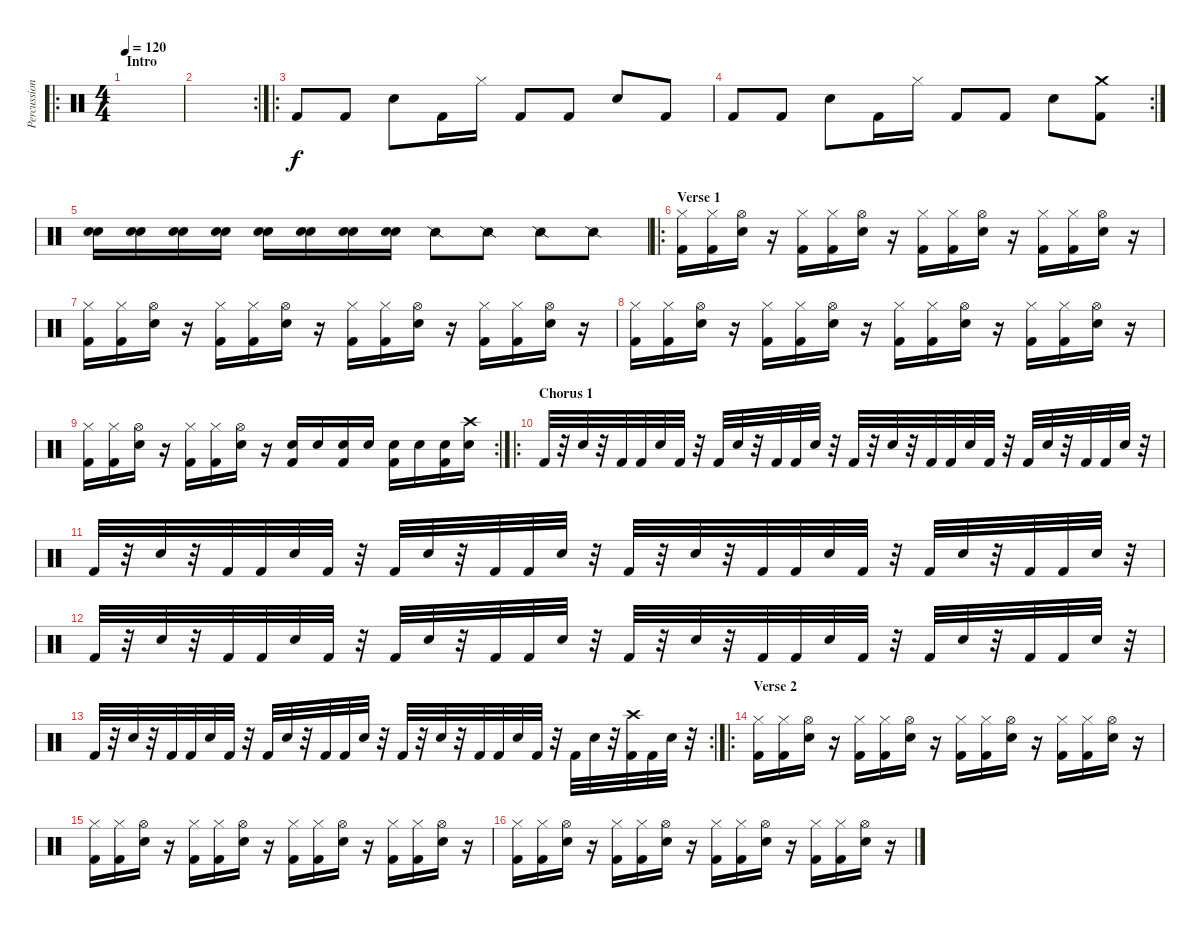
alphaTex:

\track ("Percussion" "Percussion") {instrument percussion}
\staff {score}
\articulation defaults
\ro
\ts (4 4)
\section ("" "Intro")
\tempo 120
\clef neutral
\ks c
|
\rc 2
|
\ro "Kick (hit) 2".8 "Kick (hit) 2".8 "Electric Snare (hit)".8 "Kick (hit) 2".16 "Hi-Hat (closed)".16 "Kick (hit) 2".8 "Kick (hit) 2".8 "Electric Snare (hit)".8 "Kick (hit) 2".8
|
\rc 2 "Kick (hit) 2".8 "Kick (hit) 2".8 "Electric Snare (hit)".8 "Kick (hit) 2".16 "Hi-Hat (closed)".16 "Kick (hit) 2".8 "Kick (hit) 2".8 "Electric Snare (hit)".8
("Crash medium (hit)" "Kick (hit) 2").8 |
("Electric Snare (hit)" "Snare (hit) 2").16 ("Electric Snare (hit)" "Snare (hit) 2").16 ("Electric Snare (hit)" "Snare (hit) 2").16 ("Electric Snare (hit)" "Snare (hit) 2").16 ("Electric Snare (hit)" "Snare (hit) 2").16 ("Electric Snare (hit)" "Snare (hit) 2").16 ("Electric Snare (hit)" "Snare (hit) 2").16 ("Electric Snare (hit)" "Snare (hit) 2").16 "Snare (side stick) 2".8 "Snare (side stick) 2".8 "Snare (side stick) 2".8 "Snare (side stick) 2".8 |
\ro
\section ("" "Verse 1")
("Hi-Hat (closed)" "Kick (hit) 2").16 ("Hi-Hat (closed)" "Kick (hit) 2").16 ("Hi-Hat (open)" "Electric Snare (hit)").16 r.16 ("Hi-Hat (closed)" "Kick (hit) 2").16 ("Hi-Hat (closed)" "Kick (hit) 2").16 ("Hi-Hat (open)" "Electric Snare (hit)").16 r.16 ("Hi-Hat (closed)" "Kick (hit) 2").16 ("Hi-Hat (closed)" "Kick (hit) 2").16 ("Hi-Hat (open)" "Electric Snare (hit)").16 r.16 ("Hi-Hat (closed)" "Kick (hit) 2").16 ("Hi-Hat (closed)" "Kick (hit) 2").16 ("Hi-Hat (open)" "Electric Snare (hit)").16 r.16 |
("Hi-Hat (closed)" "Kick (hit) 2").16 ("Hi-Hat (closed)" "Kick (hit) 2").16 ("Hi-Hat (open)" "Electric Snare (hit)").16 r.16 ("Hi-Hat (closed)" "Kick (hit) 2").16 ("Hi-Hat (closed)" "Kick (hit) 2").16 ("Hi-Hat (open)" "Electric Snare (hit)").16 r.16 ("Hi-Hat (closed)" "Kick (hit) 2").16 ("Hi-Hat (closed)" "Kick (hit) 2").16 ("Hi-Hat (open)" "Electric Snare (hit)").16 r.16 ("Hi-Hat (closed)" "Kick (hit) 2").16 ("Hi-Hat (closed)" "Kick (hit) 2").16 ("Hi-Hat (open)" "Electric Snare (hit)").16 r.16 |
("Hi-Hat (closed)" "Kick (hit) 2").16 ("Hi-Hat (closed)" "Kick (hit) 2").16 ("Hi-Hat (open)" "Electric Snare (hit)").16 r.16 ("Hi-Hat (closed)" "Kick (hit) 2").16 ("Hi-Hat (closed)" "Kick (hit) 2").16 ("Hi-Hat (open)" "Electric Snare (hit)").16 r.16 ("Hi-Hat (closed)" "Kick (hit) 2").16 ("Hi-Hat (closed)" "Kick (hit) 2").16 ("Hi-Hat (open)" "Electric Snare (hit)").16 r.16 ("Hi-Hat (closed)" "Kick (hit) 2").16 ("Hi-Hat (closed)" "Kick (hit) 2").16 ("Hi-Hat (open)" "Electric Snare (hit)").16 r.16 |
\rc 2
("Hi-Hat (closed)" "Kick (hit) 2").16 ("Hi-Hat (closed)" "Kick (hit) 2").16 ("Hi-Hat (open)" "Electric Snare (hit)").16 r.16 ("Hi-Hat (closed)" "Kick (hit) 2").16 ("Hi-Hat (closed)" "Kick (hit) 2").16 ("Hi-Hat (open)" "Electric Snare (hit)").16 r.16 ("Electric Snare (hit)" "Kick (hit) 2").16 "Electric Snare (hit)".16 ("Electric Snare (hit)" "Kick (hit) 2").16 "Electric Snare (hit)".16 ("Electric Snare (hit)" "Kick (hit) 2").16 "Electric Snare (hit)".16 ("Electric Snare (hit)" "Kick (hit) 2").16 ("Crash high (hit)" "Electric Snare (hit)").16 |
\ro
\section ("" "Chorus 1")
"Kick (hit) 2".32 r.32 "Electric Snare (hit)".32 r.32 "Kick (hit) 2".32 "Kick (hit) 2".32 "Electric Snare (hit)".32 "Kick (hit) 2".32 r.32 "Kick (hit) 2".32 "Electric Snare (hit)".32 r.32 "Kick (hit) 2".32 "Kick (hit) 2".32 "Electric Snare (hit)".32 r.32 "Kick (hit) 2".32 r.32 "Electric Snare (hit)".32 r.32 "Kick (hit) 2".32 "Kick (hit) 2".32 "Electric Snare (hit)".32 "Kick (hit) 2".32 r.32 "Kick (hit) 2".32 "Electric Snare (hit)".32 r.32 "Kick (hit) 2".32 "Kick (hit) 2".32 "Electric Snare (hit)".32 r.32 |
"Kick (hit) 2".32 r.32 "Electric Snare (hit)".32 r.32 "Kick (hit) 2".32 "Kick (hit) 2".32 "Electric Snare (hit)".32 "Kick (hit) 2".32 r.32 "Kick (hit) 2".32 "Electric Snare (hit)".32 r.32 "Kick (hit) 2".32 "Kick (hit) 2".32 "Electric Snare (hit)".32 r.32 "Kick (hit) 2".32 r.32 "Electric Snare (hit)".32 r.32 "Kick (hit) 2".32 "Kick (hit) 2".32 "Electric Snare (hit)".32 "Kick (hit) 2".32 r.32 "Kick (hit) 2".32 "Electric Snare (hit)".32 r.32 "Kick (hit) 2".32 "Kick (hit) 2".32 "Electric Snare (hit)".32 r.32 |
"Kick (hit) 2".32 r.32 "Electric Snare (hit)".32 r.32 "Kick (hit) 2".32 "Kick (hit) 2".32 "Electric Snare (hit)".32 "Kick (hit) 2".32 r.32 "Kick (hit) 2".32 "Electric Snare (hit)".32 r.32 "Kick (hit) 2".32 "Kick (hit) 2".32 "Electric Snare (hit)".32 r.32 "Kick (hit) 2".32 r.32 "Electric Snare (hit)".32 r.32 "Kick (hit) 2".32 "Kick (hit) 2".32 "Electric Snare (hit)".32 "Kick (hit) 2".32 r.32 "Kick (hit) 2".32 "Electric Snare (hit)".32 r.32 "Kick (hit) 2".32 "Kick (hit) 2".32 "Electric Snare (hit)".32 r.32 |
\rc 2 "Kick (hit) 2".32
r.32 "Electric Snare (hit)".32 r.32 "Kick (hit) 2".32 "Kick (hit) 2".32 "Electric Snare (hit)".32 "Kick (hit) 2".32 r.32 "Kick (hit) 2".32 "Electric Snare (hit)".32 r.32 "Kick (hit) 2".32 "Kick (hit) 2".32 "Electric Snare (hit)".32 r.32 "Kick (hit) 2".32 r.32 "Electric Snare (hit)".32 r.32 "Kick (hit) 2".32 "Kick (hit) 2".32 "Electric Snare (hit)".32 "Kick (hit) 2".32 r.32 "Kick (hit) 2".32 "Electric Snare (hit)".32 r.32 ("Crash high (hit)" "Kick (hit) 2").32 "Kick (hit) 2".32 "Electric Snare (hit)".32 r.32 |
\ro
\section ("" "Verse 2")
("Hi-Hat (closed)" "Kick (hit) 2").16 ("Hi-Hat (closed)" "Kick (hit) 2").16 ("Hi-Hat (open)" "Electric Snare (hit)").16 r.16 ("Hi-Hat (closed)" "Kick (hit) 2").16 ("Hi-Hat (closed)" "Kick (hit) 2").16 ("Hi-Hat (open)" "Electric Snare (hit)").16 r.16 ("Hi-Hat (closed)" "Kick (hit) 2").16 ("Hi-Hat (closed)" "Kick (hit) 2").16 ("Hi-Hat (open)" "Electric Snare (hit)").16 r.16 ("Hi-Hat (closed)" "Kick (hit) 2").16 ("Hi-Hat (closed)" "Kick (hit) 2").16 ("Hi-Hat (open)" "Electric Snare (hit)").16 r.16 |
("Hi-Hat (closed)" "Kick (hit) 2").16 ("Hi-Hat (closed)" "Kick (hit) 2").16 ("Hi-Hat (open)" "Electric Snare (hit)").16 r.16 ("Hi-Hat (closed)" "Kick (hit) 2").16 ("Hi-Hat (closed)" "Kick (hit) 2").16 ("Hi-Hat (open)" "Electric Snare (hit)").16 r.16 ("Hi-Hat (closed)" "Kick (hit) 2").16 ("Hi-Hat (closed)" "Kick (hit) 2").16 ("Hi-Hat (open)" "Electric Snare (hit)").16 r.16 ("Hi-Hat (closed)" "Kick (hit) 2").16 ("Hi-Hat (closed)" "Kick (hit) 2").16 ("Hi-Hat (open)" "Electric Snare (hit)").16 r.16 |
("Hi-Hat (closed)" "Kick (hit) 2").16 ("Hi-Hat (closed)" "Kick (hit) 2").16 ("Hi-Hat (open)" "Electric Snare (hit)").16 r.16 ("Hi-Hat (closed)" "Kick (hit) 2").16 ("Hi-Hat (closed)" "Kick (hit) 2").16 ("Hi-Hat (open)" "Electric Snare (hit)").16 r.16 ("Hi-Hat (closed)" "Kick (hit) 2").16 ("Hi-Hat (closed)" "Kick (hit) 2").16 ("Hi-Hat (open)" "Electric Snare (hit)").16 r.16 ("Hi-Hat (closed)" "Kick (hit) 2").16 ("Hi-Hat (closed)" "Kick (hit) 2").16 ("Hi-Hat (open)" "Electric Snare (hit)").16 r.16
